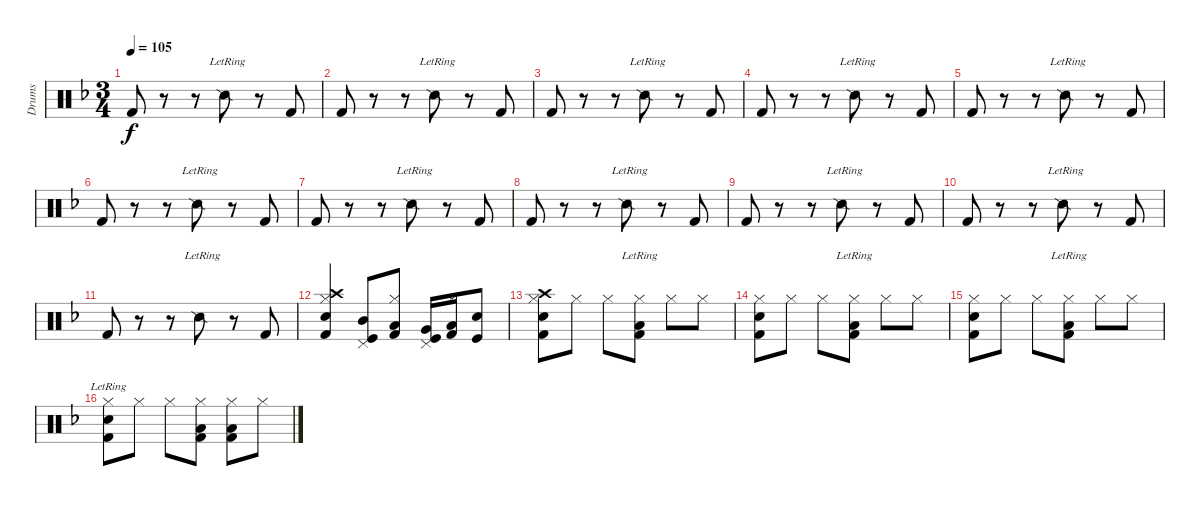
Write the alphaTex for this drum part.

\track ("Drums" "Drums") {instrument percussion}
\staff {score}
\articulation defaults
\ts (3 4)
\tempo 105
\clef neutral
\ks f "Kick (hit) 2".8{dy f}
r.8 r.8 "Snare (side stick) 2"{lr}.8 r.8 "Kick (hit) 2".8 |
"Kick (hit) 2".8 r.8 r.8 "Snare (side stick) 2"{lr}.8 r.8 "Kick (hit) 2".8 |
"Kick (hit) 2".8 r.8 r.8 "Snare (side stick) 2"{lr}.8 r.8 "Kick (hit) 2".8 |
"Kick (hit) 2".8 r.8 r.8 "Snare (side stick) 2"{lr}.8 r.8 "Kick (hit) 2".8 |
"Kick (hit) 2".8 r.8 r.8 "Snare (side stick) 2"{lr}.8 r.8 "Kick (hit) 2".8 |
"Kick (hit) 2".8 r.8 r.8 "Snare (side stick) 2"{lr}.8 r.8 "Kick (hit) 2".8 |
"Kick (hit) 2".8 r.8 r.8 "Snare (side stick) 2"{lr}.8 r.8 "Kick (hit) 2".8 |
"Kick (hit) 2".8 r.8 r.8 "Snare (side stick) 2"{lr}.8 r.8 "Kick (hit) 2".8 |
"Kick (hit) 2".8 r.8 r.8 "Snare (side stick) 2"{lr}.8 r.8 "Kick (hit) 2".8 |
"Kick (hit) 2".8 r.8 r.8 "Snare (side stick) 2"{lr}.8 r.8 "Kick (hit) 2".8 |
"Kick (hit) 2".8 r.8 r.8 "Snare (side stick) 2"{lr}.8 r.8 "Kick (hit) 2".8 |
("Hi-Hat (closed)" "Crash high (hit)" "Snare (hit) 2" "Kick (hit) 2").4 ("Pedal Hi-Hat (hit)" "Mid Tom (hit)" "Kick (hit)").8 ("Hi-Hat (closed)" "Low Tom (hit)" "Kick (hit) 2").8 ("Pedal Hi-Hat (hit)" "Very Low Tom (hit)" "Kick (hit)").16 ("Hi-Hat (closed)" "Low Floor Tom (hit)" "Kick (hit) 2").16 ("Electric Snare (hit)" "Kick (hit)").8 |
("Hi-Hat (closed)" "Crash high (hit)" "Snare (hit) 2" "Kick (hit) 2").8 "Hi-Hat (closed)".8 "Hi-Hat (closed)".8 ("Hi-Hat (closed)" "Low Floor Tom (hit)"{lr} "Kick (hit) 2"{lr}).8 "Hi-Hat (closed)".8 "Hi-Hat (closed)".8 |
("Hi-Hat (closed)" "Snare (hit) 2" "Kick (hit) 2").8 "Hi-Hat (closed)".8 "Hi-Hat (closed)".8 ("Hi-Hat (closed)" "Low Floor Tom (hit)"{lr} "Kick (hit) 2"{lr}).8 "Hi-Hat (closed)".8 "Hi-Hat (closed)".8 |
("Hi-Hat (closed)" "Snare (hit) 2" "Kick (hit) 2").8 "Hi-Hat (closed)".8 "Hi-Hat (closed)".8 ("Hi-Hat (closed)" "Low Floor Tom (hit)"{lr} "Kick (hit) 2"{lr}).8 "Hi-Hat (closed)".8 "Hi-Hat (closed)".8 |
("Hi-Hat (closed)" "Snare (hit) 2"{lr} "Kick (hit) 2"{lr}).8 "Hi-Hat (closed)".8 "Hi-Hat (closed)".8 ("Hi-Hat (closed)" "Low Floor Tom (hit)" "Kick (hit) 2").8 ("Hi-Hat (closed)" "Low Floor Tom (hit)" "Kick (hit) 2").8 "Hi-Hat (closed)".8
